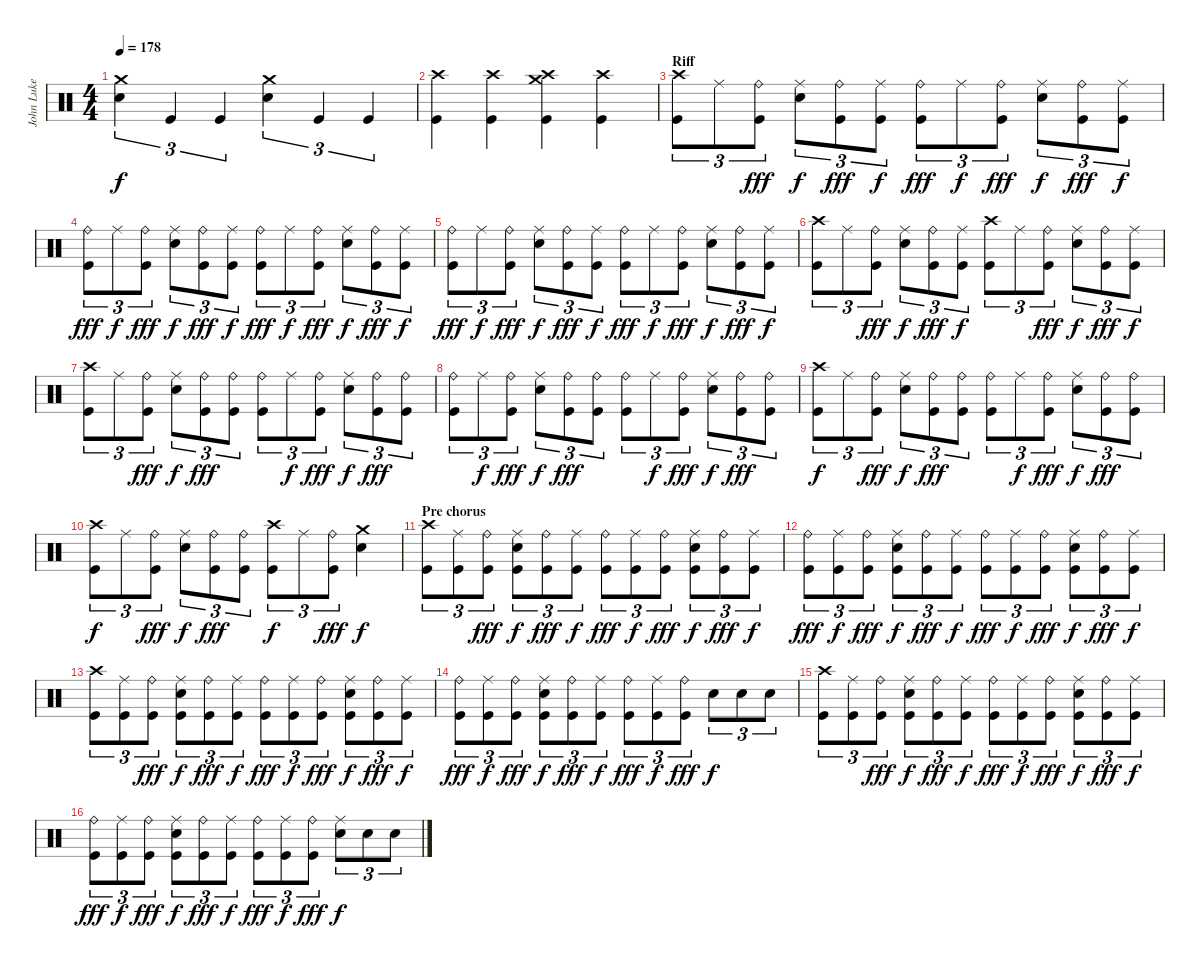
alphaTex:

\track ("John Luke (Drums)" "John Luke ") {instrument percussion}
\staff {score}
\articulation defaults
\ts (4 4)
\tempo 178
\clef neutral
\ks c
("Crash medium (hit)" "Electric Snare (hit)").4{tu (3 2) dy f} "Kick (hit)".4{tu (3 2)} "Kick (hit)".4{tu (3 2)} ("Crash medium (hit)" "Electric Snare (hit)").4{tu (3 2)} "Kick (hit)".4{tu (3 2)} "Kick (hit)".4{tu (3 2)} |
("Crash high (hit)" "Kick (hit)").4 ("Crash high (hit)" "Kick (hit)").4 ("Crash high (hit)" "Crash medium (hit)" "Kick (hit)").4 ("Crash high (hit)" "Kick (hit)").4 |
\section ("" "Riff")
("Crash high (hit)" "Kick (hit)").8{tu (3 2)} "Ride (middle)".8{tu (3 2)} ("Ride (bell)" "Kick (hit)").8{tu (3 2) dy fff} ("Ride (middle)" "Electric Snare (hit)").8{tu (3 2) dy f} ("Ride (bell)" "Kick (hit)").8{tu (3 2) dy fff} ("Ride (middle)" "Kick (hit)").8{tu (3 2) dy f} ("Ride (bell)" "Kick (hit)").8{tu (3 2) dy fff} "Ride (middle)".8{tu (3 2) dy f} ("Ride (bell)" "Kick (hit)").8{tu (3 2) dy fff} ("Ride (middle)" "Electric Snare (hit)").8{tu (3 2) dy f} ("Ride (bell)" "Kick (hit)").8{tu (3 2) dy fff} ("Ride (middle)" "Kick (hit)").8{tu (3 2) dy f} |
("Ride (bell)" "Kick (hit)").8{tu (3 2) dy fff} "Ride (middle)".8{tu (3 2) dy f} ("Ride (bell)" "Kick (hit)").8{tu (3 2) dy fff} ("Ride (middle)" "Electric Snare (hit)").8{tu (3 2) dy f} ("Ride (bell)" "Kick (hit)").8{tu (3 2) dy fff} ("Ride (middle)" "Kick (hit)").8{tu (3 2) dy f} ("Ride (bell)" "Kick (hit)").8{tu (3 2) dy fff} "Ride (middle)".8{tu (3 2) dy f} ("Ride (bell)" "Kick (hit)").8{tu (3 2) dy fff} ("Ride (middle)" "Electric Snare (hit)").8{tu (3 2) dy f} ("Ride (bell)" "Kick (hit)").8{tu (3 2) dy fff} ("Ride (middle)" "Kick (hit)").8{tu (3 2) dy f} |
("Ride (bell)" "Kick (hit)").8{tu (3 2) dy fff} "Ride (middle)".8{tu (3 2) dy f} ("Ride (bell)" "Kick (hit)").8{tu (3 2) dy fff} ("Ride (middle)" "Electric Snare (hit)").8{tu (3 2) dy f} ("Ride (bell)" "Kick (hit)").8{tu (3 2) dy fff} ("Ride (middle)" "Kick (hit)").8{tu (3 2) dy f} ("Ride (bell)" "Kick (hit)").8{tu (3 2) dy fff} "Ride (middle)".8{tu (3 2) dy f} ("Ride (bell)" "Kick (hit)").8{tu (3 2) dy fff} ("Ride (middle)" "Electric Snare (hit)").8{tu (3 2) dy f} ("Ride (bell)" "Kick (hit)").8{tu (3 2) dy fff} ("Ride (middle)" "Kick (hit)").8{tu (3 2) dy f} |
("Crash high (hit)" "Kick (hit)").8{tu (3 2)} "Ride (middle)".8{tu (3 2)} ("Ride (bell)" "Kick (hit)").8{tu (3 2) dy fff} ("Ride (middle)" "Electric Snare (hit)").8{tu (3 2) dy f} ("Ride (bell)" "Kick (hit)").8{tu (3 2) dy fff} ("Ride (middle)" "Kick (hit)").8{tu (3 2) dy f} ("Crash high (hit)" "Kick (hit)").8{tu (3 2)} "Ride (middle)".8{tu (3 2)} ("Ride (bell)" "Kick (hit)").8{tu (3 2) dy fff} ("Ride (middle)" "Electric Snare (hit)").8{tu (3 2) dy f} ("Ride (bell)" "Kick (hit)").8{tu (3 2) dy fff} ("Ride (middle)" "Kick (hit)").8{tu (3 2) dy f} |
("Crash high (hit)" "Kick (hit)").8{tu (3 2)} "Ride (middle)".8{tu (3 2)} ("Ride (bell)" "Kick (hit)").8{tu (3 2) dy fff} ("Ride (middle)" "Electric Snare (hit)").8{tu (3 2) dy f} ("Ride (bell)" "Kick (hit)").8{tu (3 2) dy fff} ("Ride (bell)" "Kick (hit)").8{tu (3 2)} ("Ride (bell)" "Kick (hit)").8{tu (3 2)} "Ride (middle)".8{tu (3 2) dy f} ("Ride (bell)" "Kick (hit)").8{tu (3 2) dy fff} ("Ride (middle)" "Electric Snare (hit)").8{tu (3 2) dy f} ("Ride (bell)" "Kick (hit)").8{tu (3 2) dy fff} ("Ride (bell)" "Kick (hit)").8{tu (3 2)} |
("Ride (bell)" "Kick (hit)").8{tu (3 2)} "Ride (middle)".8{tu (3 2) dy f} ("Ride (bell)" "Kick (hit)").8{tu (3 2) dy fff} ("Ride (middle)" "Electric Snare (hit)").8{tu (3 2) dy f} ("Ride (bell)" "Kick (hit)").8{tu (3 2) dy fff} ("Ride (bell)" "Kick (hit)").8{tu (3 2)} ("Ride (bell)" "Kick (hit)").8{tu (3 2)} "Ride (middle)".8{tu (3 2) dy f} ("Ride (bell)" "Kick (hit)").8{tu (3 2) dy fff} ("Ride (middle)" "Electric Snare (hit)").8{tu (3 2) dy f} ("Ride (bell)" "Kick (hit)").8{tu (3 2) dy fff} ("Ride (bell)" "Kick (hit)").8{tu (3 2)} |
("Crash high (hit)" "Kick (hit)").8{tu (3 2) dy f} "Ride (middle)".8{tu (3 2)} ("Ride (bell)" "Kick (hit)").8{tu (3 2) dy fff} ("Ride (middle)" "Electric Snare (hit)").8{tu (3 2) dy f} ("Ride (bell)" "Kick (hit)").8{tu (3 2) dy fff} ("Ride (bell)" "Kick (hit)").8{tu (3 2)} ("Ride (bell)" "Kick (hit)").8{tu (3 2)} "Ride (middle)".8{tu (3 2) dy f} ("Ride (bell)" "Kick (hit)").8{tu (3 2) dy fff} ("Ride (middle)" "Electric Snare (hit)").8{tu (3 2) dy f} ("Ride (bell)" "Kick (hit)").8{tu (3 2) dy fff} ("Ride (bell)" "Kick (hit)").8{tu (3 2)} |
("Crash high (hit)" "Kick (hit)").8{tu (3 2) dy f} "Ride (middle)".8{tu (3 2)} ("Ride (bell)" "Kick (hit)").8{tu (3 2) dy fff} ("Ride (middle)" "Electric Snare (hit)").8{tu (3 2) dy f} ("Ride (bell)" "Kick (hit)").8{tu (3 2) dy fff} ("Ride (bell)" "Kick (hit)").8{tu (3 2)} ("Crash high (hit)" "Kick (hit)").8{tu (3 2) dy f} "Ride (middle)".8{tu (3 2)} ("Ride (bell)" "Kick (hit)").8{tu (3 2) dy fff} ("Crash medium (hit)" "Electric Snare (hit)").4{dy f} |
\section ("" "Pre chorus")
("Crash high (hit)" "Kick (hit)").8{tu (3 2)} ("Ride (middle)" "Kick (hit)").8{tu (3 2)} ("Ride (bell)" "Kick (hit)").8{tu (3 2) dy fff} ("Ride (middle)" "Electric Snare (hit)" "Kick (hit)").8{tu (3 2) dy f} ("Ride (bell)" "Kick (hit)").8{tu (3 2) dy fff} ("Ride (middle)" "Kick (hit)").8{tu (3 2) dy f} ("Ride (bell)" "Kick (hit)").8{tu (3 2) dy fff} ("Ride (middle)" "Kick (hit)").8{tu (3 2) dy f} ("Ride (bell)" "Kick (hit)").8{tu (3 2) dy fff} ("Ride (middle)" "Electric Snare (hit)" "Kick (hit)").8{tu (3 2) dy f} ("Ride (bell)" "Kick (hit)").8{tu (3 2) dy fff} ("Ride (middle)" "Kick (hit)").8{tu (3 2) dy f} |
("Ride (bell)" "Kick (hit)").8{tu (3 2) dy fff} ("Ride (middle)" "Kick (hit)").8{tu (3 2) dy f} ("Ride (bell)" "Kick (hit)").8{tu (3 2) dy fff} ("Ride (middle)" "Electric Snare (hit)" "Kick (hit)").8{tu (3 2) dy f} ("Ride (bell)" "Kick (hit)").8{tu (3 2) dy fff} ("Ride (middle)" "Kick (hit)").8{tu (3 2) dy f} ("Ride (bell)" "Kick (hit)").8{tu (3 2) dy fff} ("Ride (middle)" "Kick (hit)").8{tu (3 2) dy f} ("Ride (bell)" "Kick (hit)").8{tu (3 2) dy fff} ("Ride (middle)" "Electric Snare (hit)" "Kick (hit)").8{tu (3 2) dy f} ("Ride (bell)" "Kick (hit)").8{tu (3 2) dy fff} ("Ride (middle)" "Kick (hit)").8{tu (3 2) dy f} |
("Crash high (hit)" "Kick (hit)").8{tu (3 2)} ("Ride (middle)" "Kick (hit)").8{tu (3 2)} ("Ride (bell)" "Kick (hit)").8{tu (3 2) dy fff} ("Ride (middle)" "Electric Snare (hit)" "Kick (hit)").8{tu (3 2) dy f} ("Ride (bell)" "Kick (hit)").8{tu (3 2) dy fff} ("Ride (middle)" "Kick (hit)").8{tu (3 2) dy f} ("Ride (bell)" "Kick (hit)").8{tu (3 2) dy fff} ("Ride (middle)" "Kick (hit)").8{tu (3 2) dy f} ("Ride (bell)" "Kick (hit)").8{tu (3 2) dy fff} ("Ride (middle)" "Electric Snare (hit)" "Kick (hit)").8{tu (3 2) dy f} ("Ride (bell)" "Kick (hit)").8{tu (3 2) dy fff} ("Ride (middle)" "Kick (hit)").8{tu (3 2) dy f} |
("Ride (bell)" "Kick (hit)").8{tu (3 2) dy fff} ("Ride (middle)" "Kick (hit)").8{tu (3 2) dy f} ("Ride (bell)" "Kick (hit)").8{tu (3 2) dy fff} ("Ride (middle)" "Electric Snare (hit)" "Kick (hit)").8{tu (3 2) dy f} ("Ride (bell)" "Kick (hit)").8{tu (3 2) dy fff} ("Ride (middle)" "Kick (hit)").8{tu (3 2) dy f} ("Ride (bell)" "Kick (hit)").8{tu (3 2) dy fff} ("Ride (middle)" "Kick (hit)").8{tu (3 2) dy f} ("Ride (bell)" "Kick (hit)").8{tu (3 2) dy fff} "Electric Snare (hit)".8{tu (3 2) dy f} "Electric Snare (hit)".8{tu (3 2)} "Electric Snare (hit)".8{tu (3 2)} |
("Crash high (hit)" "Kick (hit)").8{tu (3 2)} ("Ride (middle)" "Kick (hit)").8{tu (3 2)} ("Ride (bell)" "Kick (hit)").8{tu (3 2) dy fff} ("Ride (middle)" "Electric Snare (hit)" "Kick (hit)").8{tu (3 2) dy f} ("Ride (bell)" "Kick (hit)").8{tu (3 2) dy fff} ("Ride (middle)" "Kick (hit)").8{tu (3 2) dy f} ("Ride (bell)" "Kick (hit)").8{tu (3 2) dy fff} ("Ride (middle)" "Kick (hit)").8{tu (3 2) dy f} ("Ride (bell)" "Kick (hit)").8{tu (3 2) dy fff} ("Ride (middle)" "Electric Snare (hit)" "Kick (hit)").8{tu (3 2) dy f} ("Ride (bell)" "Kick (hit)").8{tu (3 2) dy fff} ("Ride (middle)" "Kick (hit)").8{tu (3 2) dy f} |
("Ride (bell)" "Kick (hit)").8{tu (3 2) dy fff} ("Ride (middle)" "Kick (hit)").8{tu (3 2) dy f} ("Ride (bell)" "Kick (hit)").8{tu (3 2) dy fff} ("Ride (middle)" "Electric Snare (hit)" "Kick (hit)").8{tu (3 2) dy f} ("Ride (bell)" "Kick (hit)").8{tu (3 2) dy fff} ("Ride (middle)" "Kick (hit)").8{tu (3 2) dy f} ("Ride (bell)" "Kick (hit)").8{tu (3 2) dy fff} ("Ride (middle)" "Kick (hit)").8{tu (3 2) dy f} ("Ride (bell)" "Kick (hit)").8{tu (3 2) dy fff} ("Ride (middle)" "Electric Snare (hit)").8{tu (3 2) dy f} "Electric Snare (hit)".8{tu (3 2)} "Electric Snare (hit)".8{tu (3 2)}
